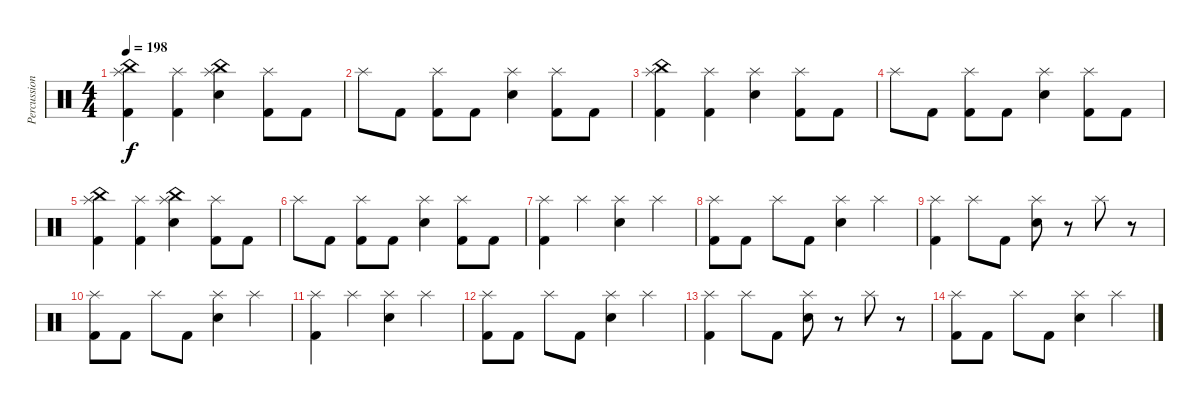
\track ("Percussion" "Percussion") {instrument percussion}
\staff {score}
\articulation defaults
\ts (4 4)
\tempo 198
\clef neutral
\ks c
("China (hit)" "Splash (hit)" "Kick (hit) 2").4{dy f} ("Splash (hit)" "Kick (hit) 2").4 ("China (hit)" "Splash (hit)" "Electric Snare (hit)").4 ("Splash (hit)" "Kick (hit) 2").8 "Kick (hit) 2".8 |
"Splash (hit)".8 "Kick (hit) 2".8 ("Splash (hit)" "Kick (hit) 2").8 "Kick (hit) 2".8 ("Splash (hit)" "Electric Snare (hit)").4 ("Splash (hit)" "Kick (hit) 2").8 "Kick (hit) 2".8 |
("China (hit)" "Splash (hit)" "Kick (hit) 2").4 ("Splash (hit)" "Kick (hit) 2").4 ("Splash (hit)" "Electric Snare (hit)").4 ("Splash (hit)" "Kick (hit) 2").8 "Kick (hit) 2".8 |
"Splash (hit)".8 "Kick (hit) 2".8 ("Splash (hit)" "Kick (hit) 2").8 "Kick (hit) 2".8 ("Splash (hit)" "Electric Snare (hit)").4 ("Splash (hit)" "Kick (hit) 2").8 "Kick (hit) 2".8 |
("China (hit)" "Splash (hit)" "Kick (hit) 2").4 ("Splash (hit)" "Kick (hit) 2").4 ("China (hit)" "Splash (hit)" "Electric Snare (hit)").4 ("Splash (hit)" "Kick (hit) 2").8 "Kick (hit) 2".8 |
"Splash (hit)".8 "Kick (hit) 2".8 ("Splash (hit)" "Kick (hit) 2").8 "Kick (hit) 2".8 ("Splash (hit)" "Electric Snare (hit)").4 ("Splash (hit)" "Kick (hit) 2").8 "Kick (hit) 2".8 |
("Splash (hit)" "Kick (hit) 2").4 "Splash (hit)".4 ("Splash (hit)" "Electric Snare (hit)").4 "Splash (hit)".4 |
("Splash (hit)" "Kick (hit) 2").8 "Kick (hit) 2".8 "Splash (hit)".8 "Kick (hit) 2".8 ("Splash (hit)" "Electric Snare (hit)").4 "Splash (hit)".4 |
("Splash (hit)" "Kick (hit) 2").4 "Splash (hit)".8 "Kick (hit) 2".8 ("Splash (hit)" "Electric Snare (hit)").8 r.8 "Splash (hit)".8 r.8 |
("Splash (hit)" "Kick (hit) 2").8 "Kick (hit) 2".8 "Splash (hit)".8 "Kick (hit) 2".8 ("Splash (hit)" "Electric Snare (hit)").4 "Splash (hit)".4 |
("Splash (hit)" "Kick (hit) 2").4 "Splash (hit)".4 ("Splash (hit)" "Electric Snare (hit)").4 "Splash (hit)".4 |
("Splash (hit)" "Kick (hit) 2").8 "Kick (hit) 2".8 "Splash (hit)".8 "Kick (hit) 2".8 ("Splash (hit)" "Electric Snare (hit)").4 "Splash (hit)".4 |
("Splash (hit)" "Kick (hit) 2").4 "Splash (hit)".8 "Kick (hit) 2".8 ("Splash (hit)" "Electric Snare (hit)").8 r.8 "Splash (hit)".8 r.8 |
("Splash (hit)" "Kick (hit) 2").8 "Kick (hit) 2".8 "Splash (hit)".8 "Kick (hit) 2".8 ("Splash (hit)" "Electric Snare (hit)").4 "Splash (hit)".4
